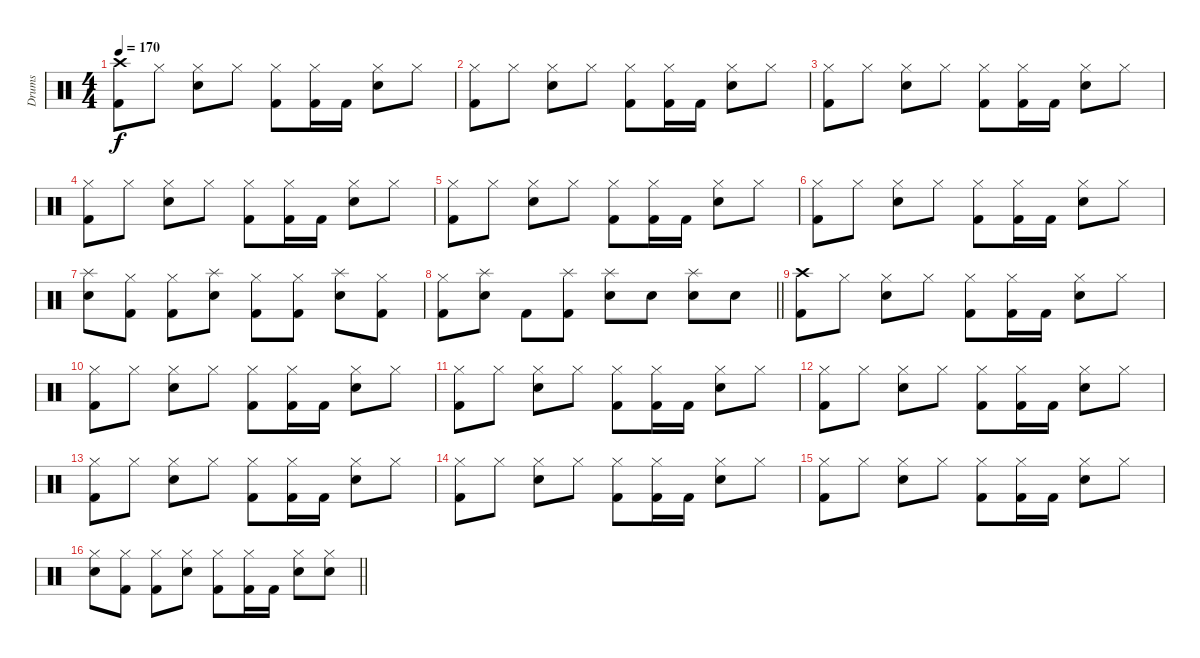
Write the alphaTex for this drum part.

\track ("Drums" "Drums") {instrument percussion}
\staff {score}
\articulation defaults
\ts (4 4)
\tempo 170
\clef neutral
\ks c
("Crash high (hit)" "Kick (hit) 2").8{dy f} "Hi-Hat (closed)".8 ("Hi-Hat (closed)" "Snare (hit) 2").8 "Hi-Hat (closed)".8 ("Hi-Hat (closed)" "Kick (hit) 2").8 ("Hi-Hat (closed)" "Kick (hit) 2").16 "Kick (hit) 2".16 ("Hi-Hat (closed)" "Snare (hit) 2").8 "Hi-Hat (closed)".8 |
("Hi-Hat (closed)" "Kick (hit) 2").8 "Hi-Hat (closed)".8 ("Hi-Hat (closed)" "Snare (hit) 2").8 "Hi-Hat (closed)".8 ("Hi-Hat (closed)" "Kick (hit) 2").8 ("Hi-Hat (closed)" "Kick (hit) 2").16 "Kick (hit) 2".16 ("Hi-Hat (closed)" "Snare (hit) 2").8 "Hi-Hat (closed)".8 |
("Hi-Hat (closed)" "Kick (hit) 2").8 "Hi-Hat (closed)".8 ("Hi-Hat (closed)" "Snare (hit) 2").8 "Hi-Hat (closed)".8 ("Hi-Hat (closed)" "Kick (hit) 2").8 ("Hi-Hat (closed)" "Kick (hit) 2").16 "Kick (hit) 2".16 ("Hi-Hat (closed)" "Snare (hit) 2").8 "Hi-Hat (closed)".8 |
("Hi-Hat (closed)" "Kick (hit) 2").8 "Hi-Hat (closed)".8 ("Hi-Hat (closed)" "Snare (hit) 2").8 "Hi-Hat (closed)".8 ("Hi-Hat (closed)" "Kick (hit) 2").8 ("Hi-Hat (closed)" "Kick (hit) 2").16 "Kick (hit) 2".16 ("Hi-Hat (closed)" "Snare (hit) 2").8 "Hi-Hat (closed)".8 |
("Hi-Hat (closed)" "Kick (hit) 2").8 "Hi-Hat (closed)".8 ("Hi-Hat (closed)" "Snare (hit) 2").8 "Hi-Hat (closed)".8 ("Hi-Hat (closed)" "Kick (hit) 2").8 ("Hi-Hat (closed)" "Kick (hit) 2").16 "Kick (hit) 2".16 ("Hi-Hat (closed)" "Snare (hit) 2").8 "Hi-Hat (closed)".8 |
("Hi-Hat (closed)" "Kick (hit) 2").8 "Hi-Hat (closed)".8 ("Hi-Hat (closed)" "Snare (hit) 2").8 "Hi-Hat (closed)".8 ("Hi-Hat (closed)" "Kick (hit) 2").8 ("Hi-Hat (closed)" "Kick (hit) 2").16 "Kick (hit) 2".16 ("Hi-Hat (closed)" "Snare (hit) 2").8 "Hi-Hat (closed)".8 |
("Splash (hit)" "Snare (hit) 2").8 ("Hi-Hat (closed)" "Kick (hit) 2").8 ("Hi-Hat (closed)" "Kick (hit) 2").8 ("Splash (hit)" "Snare (hit) 2").8 ("Hi-Hat (closed)" "Kick (hit) 2").8 ("Hi-Hat (closed)" "Kick (hit) 2").8 ("Splash (hit)" "Snare (hit) 2").8 ("Hi-Hat (closed)" "Kick (hit) 2").8 |
\barLineRight lightlight
("Hi-Hat (closed)" "Kick (hit) 2").8 ("Splash (hit)" "Snare (hit) 2").8 "Kick (hit) 2".8 ("Splash (hit)" "Kick (hit) 2").8 ("Splash (hit)" "Snare (hit) 2").8 "Snare (hit) 2".8 ("Splash (hit)" "Snare (hit) 2").8 "Snare (hit) 2".8 |
("Crash high (hit)" "Kick (hit) 2").8 "Hi-Hat (closed)".8 ("Hi-Hat (closed)" "Snare (hit) 2").8 "Hi-Hat (closed)".8 ("Hi-Hat (closed)" "Kick (hit) 2").8 ("Hi-Hat (closed)" "Kick (hit) 2").16 "Kick (hit) 2".16 ("Hi-Hat (closed)" "Snare (hit) 2").8 "Hi-Hat (closed)".8 |
("Hi-Hat (closed)" "Kick (hit) 2").8 "Hi-Hat (closed)".8 ("Hi-Hat (closed)" "Snare (hit) 2").8 "Hi-Hat (closed)".8 ("Hi-Hat (closed)" "Kick (hit) 2").8 ("Hi-Hat (closed)" "Kick (hit) 2").16 "Kick (hit) 2".16 ("Hi-Hat (closed)" "Snare (hit) 2").8 "Hi-Hat (closed)".8 |
("Hi-Hat (closed)" "Kick (hit) 2").8 "Hi-Hat (closed)".8 ("Hi-Hat (closed)" "Snare (hit) 2").8 "Hi-Hat (closed)".8 ("Hi-Hat (closed)" "Kick (hit) 2").8 ("Hi-Hat (closed)" "Kick (hit) 2").16 "Kick (hit) 2".16 ("Hi-Hat (closed)" "Snare (hit) 2").8 "Hi-Hat (closed)".8 |
("Hi-Hat (closed)" "Kick (hit) 2").8 "Hi-Hat (closed)".8 ("Hi-Hat (closed)" "Snare (hit) 2").8 "Hi-Hat (closed)".8 ("Hi-Hat (closed)" "Kick (hit) 2").8 ("Hi-Hat (closed)" "Kick (hit) 2").16 "Kick (hit) 2".16 ("Hi-Hat (closed)" "Snare (hit) 2").8 "Hi-Hat (closed)".8 |
("Hi-Hat (closed)" "Kick (hit) 2").8 "Hi-Hat (closed)".8 ("Hi-Hat (closed)" "Snare (hit) 2").8 "Hi-Hat (closed)".8 ("Hi-Hat (closed)" "Kick (hit) 2").8 ("Hi-Hat (closed)" "Kick (hit) 2").16 "Kick (hit) 2".16 ("Hi-Hat (closed)" "Snare (hit) 2").8 "Hi-Hat (closed)".8 |
("Hi-Hat (closed)" "Kick (hit) 2").8 "Hi-Hat (closed)".8 ("Hi-Hat (closed)" "Snare (hit) 2").8 "Hi-Hat (closed)".8 ("Hi-Hat (closed)" "Kick (hit) 2").8 ("Hi-Hat (closed)" "Kick (hit) 2").16 "Kick (hit) 2".16 ("Hi-Hat (closed)" "Snare (hit) 2").8 "Hi-Hat (closed)".8 |
("Hi-Hat (closed)" "Kick (hit) 2").8 "Hi-Hat (closed)".8 ("Hi-Hat (closed)" "Snare (hit) 2").8 "Hi-Hat (closed)".8 ("Hi-Hat (closed)" "Kick (hit) 2").8 ("Hi-Hat (closed)" "Kick (hit) 2").16 "Kick (hit) 2".16 ("Hi-Hat (closed)" "Snare (hit) 2").8 "Hi-Hat (closed)".8 |
\barLineRight lightlight
("Hi-Hat (closed)" "Snare (hit) 2").8 ("Hi-Hat (closed)" "Kick (hit) 2").8 ("Hi-Hat (closed)" "Kick (hit) 2").8 ("Hi-Hat (closed)" "Snare (hit) 2").8 ("Hi-Hat (closed)" "Kick (hit) 2").8 ("Hi-Hat (closed)" "Kick (hit) 2").16 "Kick (hit) 2".16 ("Hi-Hat (closed)" "Snare (hit) 2").8 ("Hi-Hat (closed)" "Snare (hit) 2").8
